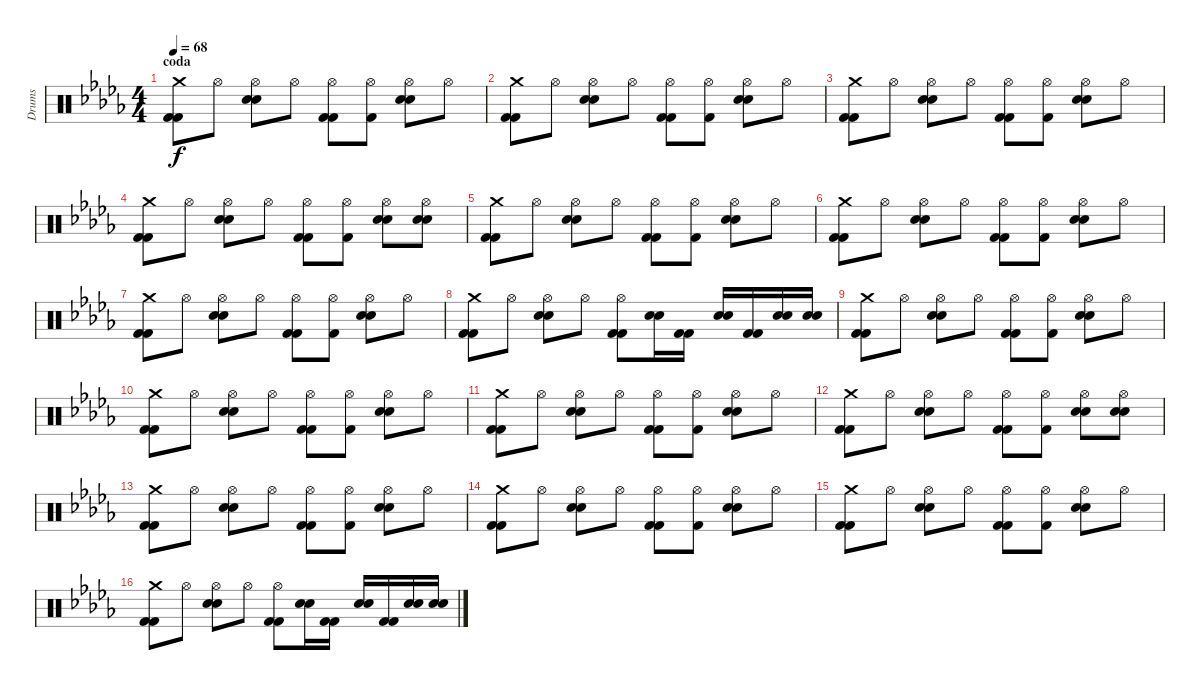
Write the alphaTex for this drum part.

\track ("Drums" "Drums") {instrument percussion}
\staff {score}
\articulation defaults
\ts (4 4)
\section ("" "coda")
\tempo 68
\clef neutral
\ks bbminor
("Crash medium (hit)" "Kick (hit) 2" "Kick (hit) 2").8{dy f} "Hi-Hat (open)".8 ("Hi-Hat (open)" "Snare (hit) 2" "Snare (hit) 2").8 "Hi-Hat (open)".8 ("Hi-Hat (open)" "Kick (hit) 2" "Kick (hit) 2").8 ("Hi-Hat (open)" "Kick (hit) 2").8 ("Hi-Hat (open)" "Snare (hit) 2" "Snare (hit) 2").8 "Hi-Hat (open)".8 |
("Crash medium (hit)" "Kick (hit) 2" "Kick (hit) 2").8 "Hi-Hat (open)".8 ("Hi-Hat (open)" "Snare (hit) 2" "Snare (hit) 2").8 "Hi-Hat (open)".8 ("Hi-Hat (open)" "Kick (hit) 2" "Kick (hit) 2").8 ("Hi-Hat (open)" "Kick (hit) 2").8 ("Hi-Hat (open)" "Snare (hit) 2" "Snare (hit) 2").8 "Hi-Hat (open)".8 |
("Crash medium (hit)" "Kick (hit) 2" "Kick (hit) 2").8 "Hi-Hat (open)".8 ("Hi-Hat (open)" "Snare (hit) 2" "Snare (hit) 2").8 "Hi-Hat (open)".8 ("Hi-Hat (open)" "Kick (hit) 2" "Kick (hit) 2").8 ("Hi-Hat (open)" "Kick (hit) 2").8 ("Hi-Hat (open)" "Snare (hit) 2" "Snare (hit) 2").8 "Hi-Hat (open)".8 |
("Crash medium (hit)" "Kick (hit) 2" "Kick (hit) 2").8 "Hi-Hat (open)".8 ("Hi-Hat (open)" "Snare (hit) 2" "Snare (hit) 2").8 "Hi-Hat (open)".8 ("Hi-Hat (open)" "Kick (hit) 2" "Kick (hit) 2").8 ("Hi-Hat (open)" "Kick (hit) 2").8 ("Hi-Hat (open)" "Snare (hit) 2" "Snare (hit) 2").8 ("Hi-Hat (open)" "Snare (hit) 2" "Snare (hit) 2").8 |
("Crash medium (hit)" "Kick (hit) 2" "Kick (hit) 2").8 "Hi-Hat (open)".8 ("Hi-Hat (open)" "Snare (hit) 2" "Snare (hit) 2").8 "Hi-Hat (open)".8 ("Hi-Hat (open)" "Kick (hit) 2" "Kick (hit) 2").8 ("Hi-Hat (open)" "Kick (hit) 2").8 ("Hi-Hat (open)" "Snare (hit) 2" "Snare (hit) 2").8 "Hi-Hat (open)".8 |
("Crash medium (hit)" "Kick (hit) 2" "Kick (hit) 2").8 "Hi-Hat (open)".8 ("Hi-Hat (open)" "Snare (hit) 2" "Snare (hit) 2").8 "Hi-Hat (open)".8 ("Hi-Hat (open)" "Kick (hit) 2" "Kick (hit) 2").8 ("Hi-Hat (open)" "Kick (hit) 2").8 ("Hi-Hat (open)" "Snare (hit) 2" "Snare (hit) 2").8 "Hi-Hat (open)".8 |
("Crash medium (hit)" "Kick (hit) 2" "Kick (hit) 2").8 "Hi-Hat (open)".8 ("Hi-Hat (open)" "Snare (hit) 2" "Snare (hit) 2").8 "Hi-Hat (open)".8 ("Hi-Hat (open)" "Kick (hit) 2" "Kick (hit) 2").8 ("Hi-Hat (open)" "Kick (hit) 2").8 ("Hi-Hat (open)" "Snare (hit) 2" "Snare (hit) 2").8 "Hi-Hat (open)".8 |
("Crash medium (hit)" "Kick (hit) 2" "Kick (hit) 2").8 "Hi-Hat (open)".8 ("Hi-Hat (open)" "Snare (hit) 2" "Snare (hit) 2").8 "Hi-Hat (open)".8 ("Hi-Hat (open)" "Kick (hit) 2" "Kick (hit) 2").8 ("Snare (hit) 2" "Snare (hit) 2").16 ("Kick (hit) 2" "Kick (hit) 2").16 ("Snare (hit) 2" "Snare (hit) 2").16 ("Kick (hit) 2" "Kick (hit) 2").16 ("Snare (hit) 2" "Snare (hit) 2").16 ("Snare (hit) 2" "Snare (hit) 2").16 |
("Crash medium (hit)" "Kick (hit) 2" "Kick (hit) 2").8 "Hi-Hat (open)".8 ("Hi-Hat (open)" "Snare (hit) 2" "Snare (hit) 2").8 "Hi-Hat (open)".8 ("Hi-Hat (open)" "Kick (hit) 2" "Kick (hit) 2").8 ("Hi-Hat (open)" "Kick (hit) 2").8 ("Hi-Hat (open)" "Snare (hit) 2" "Snare (hit) 2").8 "Hi-Hat (open)".8 |
("Crash medium (hit)" "Kick (hit) 2" "Kick (hit) 2").8 "Hi-Hat (open)".8 ("Hi-Hat (open)" "Snare (hit) 2" "Snare (hit) 2").8 "Hi-Hat (open)".8 ("Hi-Hat (open)" "Kick (hit) 2" "Kick (hit) 2").8 ("Hi-Hat (open)" "Kick (hit) 2").8 ("Hi-Hat (open)" "Snare (hit) 2" "Snare (hit) 2").8 "Hi-Hat (open)".8 |
("Crash medium (hit)" "Kick (hit) 2" "Kick (hit) 2").8 "Hi-Hat (open)".8 ("Hi-Hat (open)" "Snare (hit) 2" "Snare (hit) 2").8 "Hi-Hat (open)".8 ("Hi-Hat (open)" "Kick (hit) 2" "Kick (hit) 2").8 ("Hi-Hat (open)" "Kick (hit) 2").8 ("Hi-Hat (open)" "Snare (hit) 2" "Snare (hit) 2").8 "Hi-Hat (open)".8 |
("Crash medium (hit)" "Kick (hit) 2" "Kick (hit) 2").8 "Hi-Hat (open)".8 ("Hi-Hat (open)" "Snare (hit) 2" "Snare (hit) 2").8 "Hi-Hat (open)".8 ("Hi-Hat (open)" "Kick (hit) 2" "Kick (hit) 2").8 ("Hi-Hat (open)" "Kick (hit) 2").8 ("Hi-Hat (open)" "Snare (hit) 2" "Snare (hit) 2").8 ("Hi-Hat (open)" "Snare (hit) 2" "Snare (hit) 2").8 |
("Crash medium (hit)" "Kick (hit) 2" "Kick (hit) 2").8 "Hi-Hat (open)".8 ("Hi-Hat (open)" "Snare (hit) 2" "Snare (hit) 2").8 "Hi-Hat (open)".8 ("Hi-Hat (open)" "Kick (hit) 2" "Kick (hit) 2").8 ("Hi-Hat (open)" "Kick (hit) 2").8 ("Hi-Hat (open)" "Snare (hit) 2" "Snare (hit) 2").8 "Hi-Hat (open)".8 |
("Crash medium (hit)" "Kick (hit) 2" "Kick (hit) 2").8 "Hi-Hat (open)".8 ("Hi-Hat (open)" "Snare (hit) 2" "Snare (hit) 2").8 "Hi-Hat (open)".8 ("Hi-Hat (open)" "Kick (hit) 2" "Kick (hit) 2").8 ("Hi-Hat (open)" "Kick (hit) 2").8 ("Hi-Hat (open)" "Snare (hit) 2" "Snare (hit) 2").8 "Hi-Hat (open)".8 |
("Crash medium (hit)" "Kick (hit) 2" "Kick (hit) 2").8 "Hi-Hat (open)".8 ("Hi-Hat (open)" "Snare (hit) 2" "Snare (hit) 2").8 "Hi-Hat (open)".8 ("Hi-Hat (open)" "Kick (hit) 2" "Kick (hit) 2").8 ("Hi-Hat (open)" "Kick (hit) 2").8 ("Hi-Hat (open)" "Snare (hit) 2" "Snare (hit) 2").8 "Hi-Hat (open)".8 |
("Crash medium (hit)" "Kick (hit) 2" "Kick (hit) 2").8 "Hi-Hat (open)".8 ("Hi-Hat (open)" "Snare (hit) 2" "Snare (hit) 2").8 "Hi-Hat (open)".8 ("Hi-Hat (open)" "Kick (hit) 2" "Kick (hit) 2").8 ("Snare (hit) 2" "Snare (hit) 2").16 ("Kick (hit) 2" "Kick (hit) 2").16 ("Snare (hit) 2" "Snare (hit) 2").16 ("Kick (hit) 2" "Kick (hit) 2").16 ("Snare (hit) 2" "Snare (hit) 2").16 ("Snare (hit) 2" "Snare (hit) 2").16
